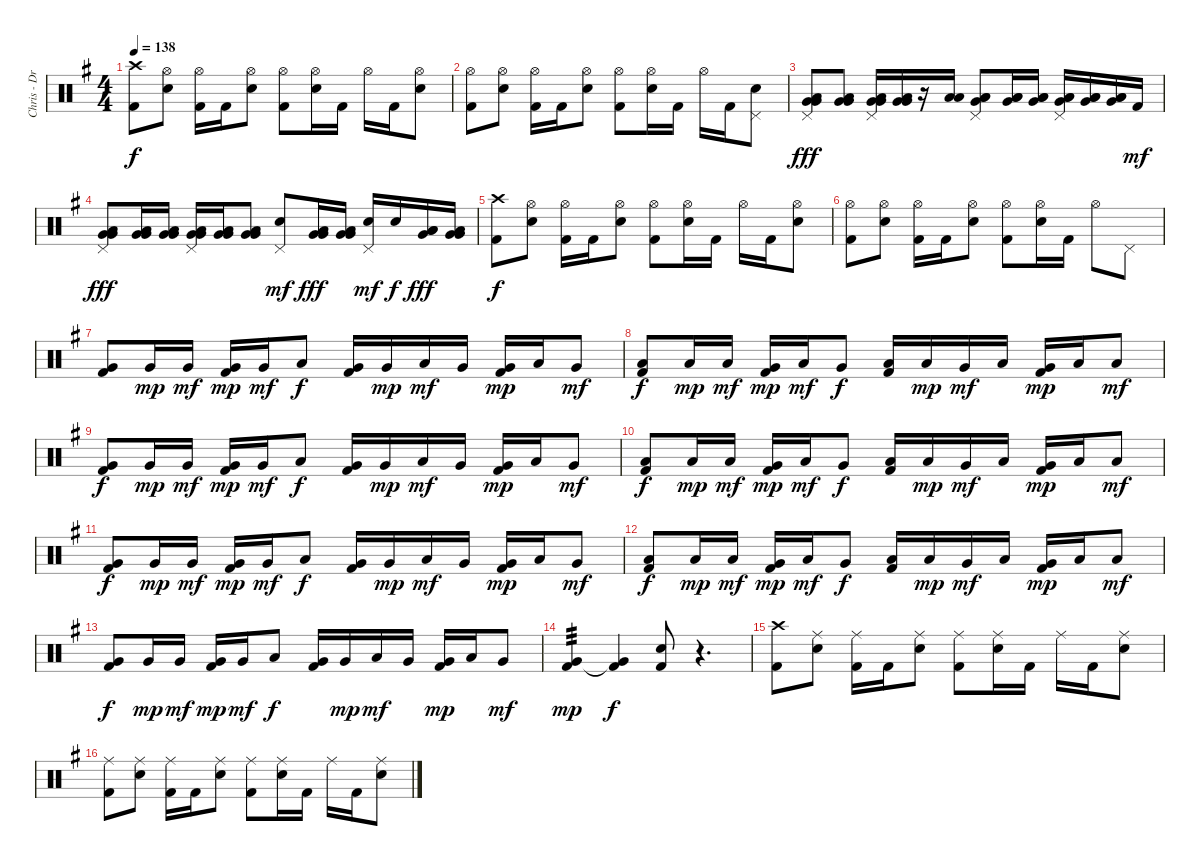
\track ("Chris - Drums" "Chris - Dr") {instrument percussion}
\staff {score}
\articulation defaults
\ts (4 4)
\tempo 138
\clef neutral
\ks g
("Crash high (hit)" "Kick (hit) 2").8{dy f} ("Hi-Hat (open)" "Electric Snare (hit)").8 ("Hi-Hat (open)" "Kick (hit) 2").16 "Kick (hit) 2".16 ("Hi-Hat (open)" "Electric Snare (hit)").8 ("Hi-Hat (open)" "Kick (hit) 2").8 ("Hi-Hat (open)" "Electric Snare (hit)").16 "Kick (hit) 2".16 "Hi-Hat (open)".16 "Kick (hit) 2".16 ("Hi-Hat (open)" "Electric Snare (hit)").8 |
("Hi-Hat (open)" "Kick (hit) 2").8 ("Hi-Hat (open)" "Electric Snare (hit)").8 ("Hi-Hat (open)" "Kick (hit) 2").16 "Kick (hit) 2".16 ("Hi-Hat (open)" "Electric Snare (hit)").8 ("Hi-Hat (open)" "Kick (hit) 2").8 ("Hi-Hat (open)" "Electric Snare (hit)").16 "Kick (hit) 2".16 "Hi-Hat (open)".16 "Kick (hit) 2".16 ("Pedal Hi-Hat (hit)" "Electric Snare (hit)").8 |
("Pedal Hi-Hat (hit)" "Very Low Tom (hit)" "Very Low Tom (hit)" "Low Floor Tom (hit)").8{dy fff volume 16} ("Very Low Tom (hit)" "Very Low Tom (hit)" "Low Floor Tom (hit)").8 ("Pedal Hi-Hat (hit)" "Very Low Tom (hit)" "Very Low Tom (hit)" "Low Floor Tom (hit)").16 ("Very Low Tom (hit)" "Very Low Tom (hit)" "Low Floor Tom (hit)").16 r.16 ("Low Floor Tom (hit)" "Low Floor Tom (hit)").16 ("Pedal Hi-Hat (hit)" "Low Tom (hit)" "Low Tom (hit)" "Very Low Tom (hit)").8 ("Low Tom (hit)" "Low Tom (hit)" "Very Low Tom (hit)").16 ("Low Tom (hit)" "Low Tom (hit)" "Very Low Tom (hit)").16 ("Pedal Hi-Hat (hit)" "Low Tom (hit)" "Low Tom (hit)" "Very Low Tom (hit)").16 ("Low Tom (hit)" "Low Tom (hit)" "Very Low Tom (hit)").16 ("Low Tom (hit)" "Low Tom (hit)" "Very Low Tom (hit)").16 "Kick (hit) 2".16{dy mf} |
("Pedal Hi-Hat (hit)" "Very Low Tom (hit)" "Very Low Tom (hit)" "Low Floor Tom (hit)").8{dy fff} ("Very Low Tom (hit)" "Very Low Tom (hit)" "Low Floor Tom (hit)").16 ("Very Low Tom (hit)" "Very Low Tom (hit)" "Low Floor Tom (hit)").16 ("Pedal Hi-Hat (hit)" "Very Low Tom (hit)" "Very Low Tom (hit)" "Low Floor Tom (hit)").16 ("Very Low Tom (hit)" "Very Low Tom (hit)" "Low Floor Tom (hit)").16 ("Very Low Tom (hit)" "Very Low Tom (hit)" "Low Floor Tom (hit)").8 ("Pedal Hi-Hat (hit)" "Electric Snare (hit)").8{dy mf} ("Very Low Tom (hit)" "Very Low Tom (hit)" "Low Floor Tom (hit)").16{dy fff} ("Very Low Tom (hit)" "Very Low Tom (hit)" "Low Floor Tom (hit)").16 ("Pedal Hi-Hat (hit)" "Electric Snare (hit)").16{dy mf} "Electric Snare (hit)".16{dy f} ("Low Tom (hit)" "Low Tom (hit)" "Very Low Tom (hit)").16{dy fff} ("Very Low Tom (hit)" "Very Low Tom (hit)" "Low Floor Tom (hit)").16 |
("Crash high (hit)" "Kick (hit) 2").8{dy f volume 14} ("Hi-Hat (open)" "Electric Snare (hit)").8 ("Hi-Hat (open)" "Kick (hit) 2").16 "Kick (hit) 2".16 ("Hi-Hat (open)" "Electric Snare (hit)").8 ("Hi-Hat (open)" "Kick (hit) 2").8 ("Hi-Hat (open)" "Electric Snare (hit)").16 "Kick (hit) 2".16 "Hi-Hat (open)".16 "Kick (hit) 2".16 ("Hi-Hat (open)" "Electric Snare (hit)").8 |
("Hi-Hat (open)" "Kick (hit) 2").8 ("Hi-Hat (open)" "Electric Snare (hit)").8 ("Hi-Hat (open)" "Kick (hit) 2").16 "Kick (hit) 2".16 ("Hi-Hat (open)" "Electric Snare (hit)").8 ("Hi-Hat (open)" "Kick (hit) 2").8 ("Hi-Hat (open)" "Electric Snare (hit)").16 "Kick (hit) 2".16 "Hi-Hat (open)".8 "Pedal Hi-Hat (hit)".8 |
("Very Low Tom (hit)" "Kick (hit) 2").8 "Very Low Tom (hit)".16{dy mp} "Very Low Tom (hit)".16{dy mf} ("Very Low Tom (hit)" "Kick (hit) 2").16{dy mp} "Very Low Tom (hit)".16{dy mf} "Low Floor Tom (hit)".8{dy f} ("Very Low Tom (hit)" "Kick (hit) 2").16 "Very Low Tom (hit)".16{dy mp} "Low Floor Tom (hit)".16{dy mf} "Very Low Tom (hit)".16 ("Very Low Tom (hit)" "Kick (hit) 2").16{dy mp} "Low Floor Tom (hit)".16 "Very Low Tom (hit)".8{dy mf} |
("Low Tom (hit)" "Kick (hit) 2").8{dy f} "Low Tom (hit)".16{dy mp} "Low Tom (hit)".16{dy mf} ("Very Low Tom (hit)" "Kick (hit) 2").16{dy mp} "Low Tom (hit)".16{dy mf} "Very Low Tom (hit)".8{dy f} ("Low Tom (hit)" "Kick (hit) 2").16 "Low Tom (hit)".16{dy mp} "Very Low Tom (hit)".16{dy mf} "Low Tom (hit)".16 ("Very Low Tom (hit)" "Kick (hit) 2").16{dy mp} "Low Floor Tom (hit)".16 "Low Tom (hit)".8{dy mf} |
("Very Low Tom (hit)" "Kick (hit) 2").8{dy f} "Very Low Tom (hit)".16{dy mp} "Very Low Tom (hit)".16{dy mf} ("Very Low Tom (hit)" "Kick (hit) 2").16{dy mp} "Very Low Tom (hit)".16{dy mf} "Low Floor Tom (hit)".8{dy f} ("Very Low Tom (hit)" "Kick (hit) 2").16 "Very Low Tom (hit)".16{dy mp} "Low Floor Tom (hit)".16{dy mf} "Very Low Tom (hit)".16 ("Very Low Tom (hit)" "Kick (hit) 2").16{dy mp} "Low Floor Tom (hit)".16 "Very Low Tom (hit)".8{dy mf} |
("Low Tom (hit)" "Kick (hit) 2").8{dy f} "Low Tom (hit)".16{dy mp} "Low Tom (hit)".16{dy mf} ("Very Low Tom (hit)" "Kick (hit) 2").16{dy mp} "Low Tom (hit)".16{dy mf} "Very Low Tom (hit)".8{dy f} ("Low Tom (hit)" "Kick (hit) 2").16 "Low Tom (hit)".16{dy mp} "Very Low Tom (hit)".16{dy mf} "Low Tom (hit)".16 ("Very Low Tom (hit)" "Kick (hit) 2").16{dy mp} "Low Floor Tom (hit)".16 "Low Tom (hit)".8{dy mf} |
("Very Low Tom (hit)" "Kick (hit) 2").8{dy f} "Very Low Tom (hit)".16{dy mp} "Very Low Tom (hit)".16{dy mf} ("Very Low Tom (hit)" "Kick (hit) 2").16{dy mp} "Very Low Tom (hit)".16{dy mf} "Low Floor Tom (hit)".8{dy f} ("Very Low Tom (hit)" "Kick (hit) 2").16 "Very Low Tom (hit)".16{dy mp} "Low Floor Tom (hit)".16{dy mf} "Very Low Tom (hit)".16 ("Very Low Tom (hit)" "Kick (hit) 2").16{dy mp} "Low Floor Tom (hit)".16 "Very Low Tom (hit)".8{dy mf} |
("Low Tom (hit)" "Kick (hit) 2").8{dy f} "Low Tom (hit)".16{dy mp} "Low Tom (hit)".16{dy mf} ("Very Low Tom (hit)" "Kick (hit) 2").16{dy mp} "Low Tom (hit)".16{dy mf} "Very Low Tom (hit)".8{dy f} ("Low Tom (hit)" "Kick (hit) 2").16 "Low Tom (hit)".16{dy mp} "Very Low Tom (hit)".16{dy mf} "Low Tom (hit)".16 ("Very Low Tom (hit)" "Kick (hit) 2").16{dy mp} "Low Floor Tom (hit)".16 "Low Tom (hit)".8{dy mf} |
("Very Low Tom (hit)" "Kick (hit) 2").8{dy f} "Very Low Tom (hit)".16{dy mp} "Very Low Tom (hit)".16{dy mf} ("Very Low Tom (hit)" "Kick (hit) 2").16{dy mp} "Very Low Tom (hit)".16{dy mf} "Low Floor Tom (hit)".8{dy f} ("Very Low Tom (hit)" "Kick (hit) 2").16 "Very Low Tom (hit)".16{dy mp} "Low Floor Tom (hit)".16{dy mf} "Very Low Tom (hit)".16 ("Very Low Tom (hit)" "Kick (hit) 2").16{dy mp} "Low Floor Tom (hit)".16 "Very Low Tom (hit)".8{dy mf} |
("Very Low Tom (hit)" "Kick (hit) 2").4{tp 3 dy mp} ("Very Low Tom (hit)"{t} "Kick (hit) 2").4{dy f} ("Electric Snare (hit)" "Kick (hit) 2").8 r.4{d} |
("Crash high (hit)" "Kick (hit) 2").8 ("Ride (middle)" "Electric Snare (hit)").8 ("Ride (middle)" "Kick (hit) 2").16 "Kick (hit) 2".16 ("Ride (middle)" "Electric Snare (hit)").8 ("Ride (middle)" "Kick (hit) 2").8 ("Ride (middle)" "Electric Snare (hit)").16 "Kick (hit) 2".16 "Ride (middle)".16 "Kick (hit) 2".16 ("Ride (middle)" "Electric Snare (hit)").8 |
("Ride (middle)" "Kick (hit) 2").8 ("Ride (middle)" "Electric Snare (hit)").8 ("Ride (middle)" "Kick (hit) 2").16 "Kick (hit) 2".16 ("Ride (middle)" "Electric Snare (hit)").8 ("Ride (middle)" "Kick (hit) 2").8 ("Ride (middle)" "Electric Snare (hit)").16 "Kick (hit) 2".16 "Ride (middle)".16 "Kick (hit) 2".16 ("Ride (middle)" "Electric Snare (hit)").8
